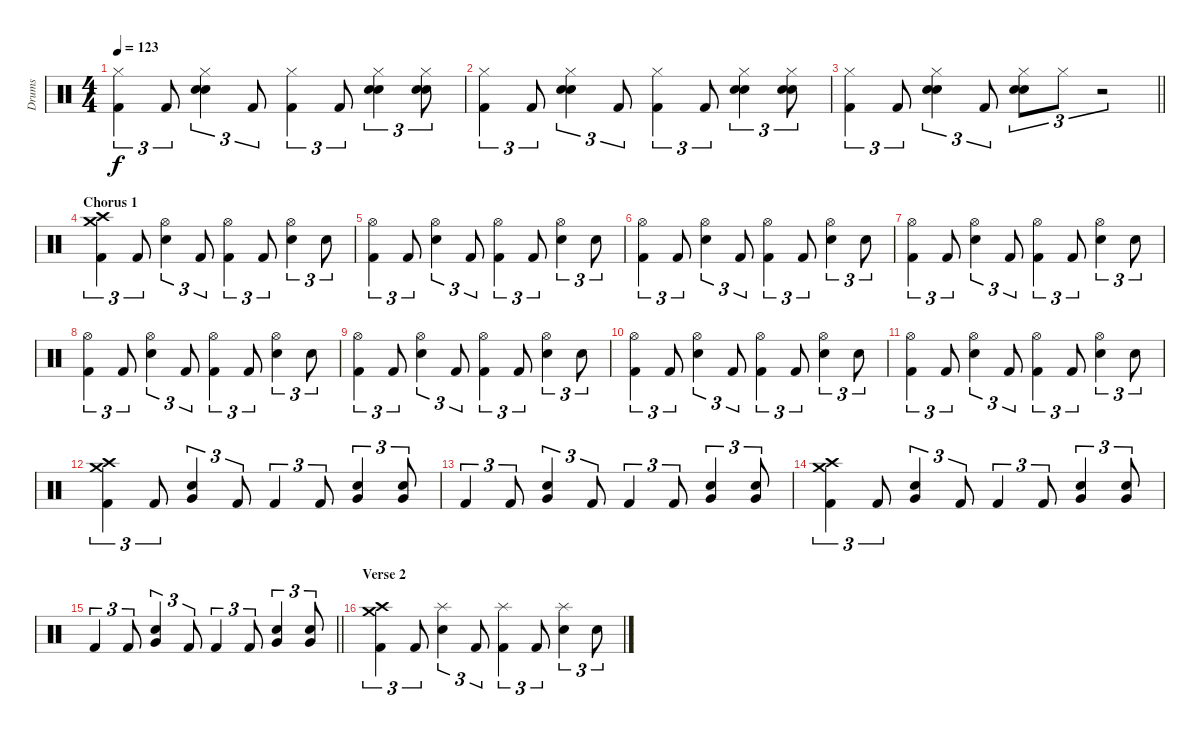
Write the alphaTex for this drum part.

\track ("Drums" "Drums") {instrument percussion}
\staff {score}
\articulation defaults
\ts (4 4)
\tempo 123
\clef neutral
\ks c
("Hi-Hat (closed)" "Kick (hit) 2").4{tu (3 2) dy f} "Kick (hit) 2".8{tu (3 2)} ("Hi-Hat (closed)" "Hand Clap (hit)" "Snare (hit) 2").4{tu (3 2)} "Kick (hit) 2".8{tu (3 2)} ("Hi-Hat (closed)" "Kick (hit) 2").4{tu (3 2)} "Kick (hit) 2".8{tu (3 2)} ("Hi-Hat (closed)" "Hand Clap (hit)" "Snare (hit) 2").4{tu (3 2)} ("Hi-Hat (closed)" "Hand Clap (hit)" "Snare (hit) 2").8{tu (3 2)} |
("Hi-Hat (closed)" "Kick (hit) 2").4{tu (3 2)} "Kick (hit) 2".8{tu (3 2)} ("Hi-Hat (closed)" "Hand Clap (hit)" "Snare (hit) 2").4{tu (3 2)} "Kick (hit) 2".8{tu (3 2)} ("Hi-Hat (closed)" "Kick (hit) 2").4{tu (3 2)} "Kick (hit) 2".8{tu (3 2)} ("Hi-Hat (closed)" "Hand Clap (hit)" "Snare (hit) 2").4{tu (3 2)} ("Hi-Hat (closed)" "Hand Clap (hit)" "Snare (hit) 2").8{tu (3 2)} |
\barLineRight lightlight
("Hi-Hat (closed)" "Kick (hit) 2").4{tu (3 2)} "Kick (hit) 2".8{tu (3 2)} ("Hi-Hat (closed)" "Hand Clap (hit)" "Snare (hit) 2").4{tu (3 2)} "Kick (hit) 2".8{tu (3 2)} ("Hi-Hat (closed)" "Hand Clap (hit)" "Snare (hit) 2").8{tu (3 2)} "Hi-Hat (closed)".8{tu (3 2)} r.2{tu (3 2)} |
\section ("" "Chorus 1")
("Crash high (hit)" "Crash medium (hit)" "Kick (hit) 2").4{tu (3 2)} "Kick (hit) 2".8{tu (3 2)} ("Hi-Hat (open)" "Snare (hit) 2").4{tu (3 2)} "Kick (hit) 2".8{tu (3 2)} ("Hi-Hat (open)" "Kick (hit) 2").4{tu (3 2)} "Kick (hit) 2".8{tu (3 2)} ("Hi-Hat (open)" "Snare (hit) 2").4{tu (3 2)} "Snare (hit) 2".8{tu (3 2)} |
("Hi-Hat (open)" "Kick (hit) 2").4{tu (3 2)} "Kick (hit) 2".8{tu (3 2)} ("Hi-Hat (open)" "Snare (hit) 2").4{tu (3 2)} "Kick (hit) 2".8{tu (3 2)} ("Hi-Hat (open)" "Kick (hit) 2").4{tu (3 2)} "Kick (hit) 2".8{tu (3 2)} ("Hi-Hat (open)" "Snare (hit) 2").4{tu (3 2)} "Snare (hit) 2".8{tu (3 2)} |
("Hi-Hat (open)" "Kick (hit) 2").4{tu (3 2)} "Kick (hit) 2".8{tu (3 2)} ("Hi-Hat (open)" "Snare (hit) 2").4{tu (3 2)} "Kick (hit) 2".8{tu (3 2)} ("Hi-Hat (open)" "Kick (hit) 2").4{tu (3 2)} "Kick (hit) 2".8{tu (3 2)} ("Hi-Hat (open)" "Snare (hit) 2").4{tu (3 2)} "Snare (hit) 2".8{tu (3 2)} |
("Hi-Hat (open)" "Kick (hit) 2").4{tu (3 2)} "Kick (hit) 2".8{tu (3 2)} ("Hi-Hat (open)" "Snare (hit) 2").4{tu (3 2)} "Kick (hit) 2".8{tu (3 2)} ("Hi-Hat (open)" "Kick (hit) 2").4{tu (3 2)} "Kick (hit) 2".8{tu (3 2)} ("Hi-Hat (open)" "Snare (hit) 2").4{tu (3 2)} "Snare (hit) 2".8{tu (3 2)} |
("Hi-Hat (open)" "Kick (hit) 2").4{tu (3 2)} "Kick (hit) 2".8{tu (3 2)} ("Hi-Hat (open)" "Snare (hit) 2").4{tu (3 2)} "Kick (hit) 2".8{tu (3 2)} ("Hi-Hat (open)" "Kick (hit) 2").4{tu (3 2)} "Kick (hit) 2".8{tu (3 2)} ("Hi-Hat (open)" "Snare (hit) 2").4{tu (3 2)} "Snare (hit) 2".8{tu (3 2)} |
("Hi-Hat (open)" "Kick (hit) 2").4{tu (3 2)} "Kick (hit) 2".8{tu (3 2)} ("Hi-Hat (open)" "Snare (hit) 2").4{tu (3 2)} "Kick (hit) 2".8{tu (3 2)} ("Hi-Hat (open)" "Kick (hit) 2").4{tu (3 2)} "Kick (hit) 2".8{tu (3 2)} ("Hi-Hat (open)" "Snare (hit) 2").4{tu (3 2)} "Snare (hit) 2".8{tu (3 2)} |
("Hi-Hat (open)" "Kick (hit) 2").4{tu (3 2)} "Kick (hit) 2".8{tu (3 2)} ("Hi-Hat (open)" "Snare (hit) 2").4{tu (3 2)} "Kick (hit) 2".8{tu (3 2)} ("Hi-Hat (open)" "Kick (hit) 2").4{tu (3 2)} "Kick (hit) 2".8{tu (3 2)} ("Hi-Hat (open)" "Snare (hit) 2").4{tu (3 2)} "Snare (hit) 2".8{tu (3 2)} |
("Hi-Hat (open)" "Kick (hit) 2").4{tu (3 2)} "Kick (hit) 2".8{tu (3 2)} ("Hi-Hat (open)" "Snare (hit) 2").4{tu (3 2)} "Kick (hit) 2".8{tu (3 2)} ("Hi-Hat (open)" "Kick (hit) 2").4{tu (3 2)} "Kick (hit) 2".8{tu (3 2)} ("Hi-Hat (open)" "Snare (hit) 2").4{tu (3 2)} "Snare (hit) 2".8{tu (3 2)} |
("Crash high (hit)" "Crash medium (hit)" "Kick (hit) 2").4{tu (3 2)} "Kick (hit) 2".8{tu (3 2)} ("Snare (hit) 2" "Very Low Tom (hit)").4{tu (3 2)} "Kick (hit) 2".8{tu (3 2)} "Kick (hit) 2".4{tu (3 2)} "Kick (hit) 2".8{tu (3 2)} ("Snare (hit) 2" "Very Low Tom (hit)").4{tu (3 2)} ("Snare (hit) 2" "Very Low Tom (hit)").8{tu (3 2)} |
"Kick (hit) 2".4{tu (3 2)} "Kick (hit) 2".8{tu (3 2)} ("Snare (hit) 2" "Very Low Tom (hit)").4{tu (3 2)} "Kick (hit) 2".8{tu (3 2)} "Kick (hit) 2".4{tu (3 2)} "Kick (hit) 2".8{tu (3 2)} ("Snare (hit) 2" "Very Low Tom (hit)").4{tu (3 2)} ("Snare (hit) 2" "Very Low Tom (hit)").8{tu (3 2)} |
("Crash high (hit)" "Crash medium (hit)" "Kick (hit) 2").4{tu (3 2)} "Kick (hit) 2".8{tu (3 2)} ("Snare (hit) 2" "Very Low Tom (hit)").4{tu (3 2)} "Kick (hit) 2".8{tu (3 2)} "Kick (hit) 2".4{tu (3 2)} "Kick (hit) 2".8{tu (3 2)} ("Snare (hit) 2" "Very Low Tom (hit)").4{tu (3 2)} ("Snare (hit) 2" "Very Low Tom (hit)").8{tu (3 2)} |
\barLineRight lightlight "Kick (hit) 2".4{tu (3 2)} "Kick (hit) 2".8{tu (3 2)}
("Snare (hit) 2" "Very Low Tom (hit)").4{tu (3 2)} "Kick (hit) 2".8{tu (3 2)} "Kick (hit) 2".4{tu (3 2)} "Kick (hit) 2".8{tu (3 2)} ("Snare (hit) 2" "Very Low Tom (hit)").4{tu (3 2)} ("Snare (hit) 2" "Very Low Tom (hit)").8{tu (3 2)} |
\section ("" "Verse 2")
("Crash high (hit)" "Crash medium (hit)" "Kick (hit) 2").4{tu (3 2)} "Kick (hit) 2".8{tu (3 2)} ("Splash (hit)" "Snare (hit) 2").4{tu (3 2)} "Kick (hit) 2".8{tu (3 2)} ("Splash (hit)" "Kick (hit) 2").4{tu (3 2)} "Kick (hit) 2".8{tu (3 2)} ("Splash (hit)" "Snare (hit) 2").4{tu (3 2)} "Snare (hit) 2".8{tu (3 2)}
